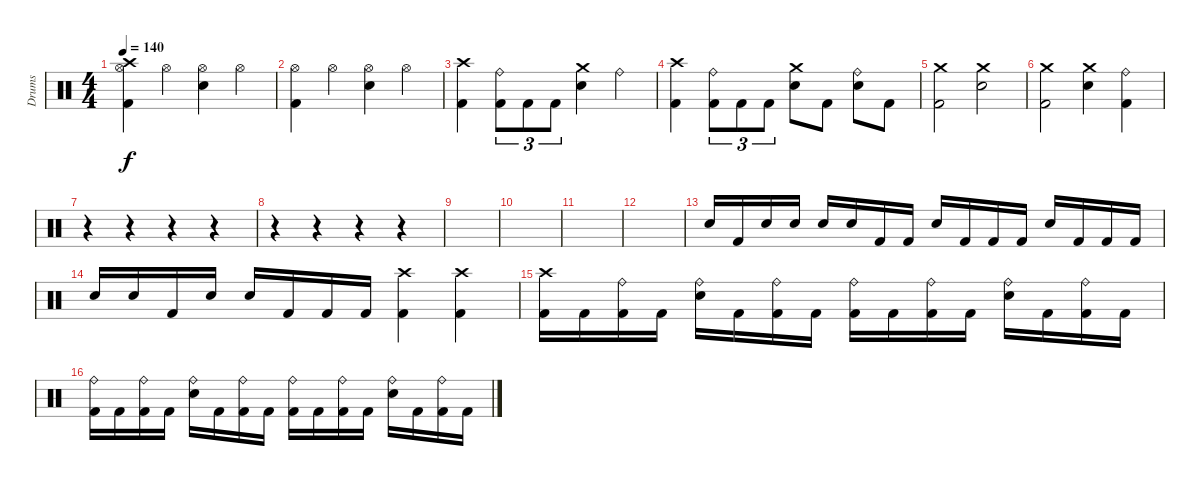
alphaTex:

\track ("Drums" "Drums") {instrument percussion}
\staff {score}
\articulation defaults
\ts (4 4)
\tempo 140
\clef neutral
\ks c
("Crash high (hit)" "Hi-Hat (open)" "Kick (hit) 2").4{dy f} "Hi-Hat (open)".4 ("Hi-Hat (open)" "Snare (hit) 2").4 "Hi-Hat (open)".4 |
("Hi-Hat (open)" "Kick (hit) 2").4 "Hi-Hat (open)".4 ("Hi-Hat (open)" "Snare (hit) 2").4 "Hi-Hat (open)".4 |
("Crash high (hit)" "Kick (hit) 2").4 ("Ride (bell)" "Kick (hit) 2").8{tu (3 2)} "Kick (hit) 2".8{tu (3 2)} "Kick (hit) 2".8{tu (3 2)} ("Crash medium (hit)" "Snare (hit) 2").4 "Ride (bell)".4 |
("Crash high (hit)" "Kick (hit) 2").4 ("Ride (bell)" "Kick (hit) 2").8{tu (3 2)} "Kick (hit) 2".8{tu (3 2)} "Kick (hit) 2".8{tu (3 2)} ("Crash medium (hit)" "Snare (hit) 2").8 "Kick (hit) 2".8 ("Ride (bell)" "Snare (hit) 2").8 "Kick (hit) 2".8 |
("Crash medium (hit)" "Kick (hit) 2").2 ("Crash medium (hit)" "Snare (hit) 2").2 |
("Crash medium (hit)" "Kick (hit) 2").2 ("Crash medium (hit)" "Snare (hit) 2").4 ("Ride (bell)" "Kick (hit) 2").4 |
r.4 r.4 r.4 r.4 |
r.4 r.4 r.4 r.4 |
|
|
|
|
"Snare (hit) 2".16 "Kick (hit) 2".16 "Snare (hit) 2".16 "Snare (hit) 2".16 "Snare (hit) 2".16 "Snare (hit) 2".16 "Kick (hit) 2".16 "Kick (hit) 2".16 "Snare (hit) 2".16 "Kick (hit) 2".16 "Kick (hit) 2".16 "Kick (hit) 2".16 "Snare (hit) 2".16 "Kick (hit) 2".16 "Kick (hit) 2".16 "Kick (hit) 2".16 |
"Snare (hit) 2".16 "Snare (hit) 2".16 "Kick (hit) 2".16 "Snare (hit) 2".16 "Snare (hit) 2".16 "Kick (hit) 2".16 "Kick (hit) 2".16 "Kick (hit) 2".16 ("Crash high (hit)" "Kick (hit) 2").4 ("Crash high (hit)" "Kick (hit) 2").4 |
("Crash high (hit)" "Kick (hit) 2").16 "Kick (hit) 2".16 ("Ride (bell)" "Kick (hit) 2").16 "Kick (hit) 2".16 ("Ride (bell)" "Snare (hit) 2").16 "Kick (hit) 2".16 ("Ride (bell)" "Kick (hit) 2").16 "Kick (hit) 2".16 ("Ride (bell)" "Kick (hit) 2").16 "Kick (hit) 2".16 ("Ride (bell)" "Kick (hit) 2").16 "Kick (hit) 2".16 ("Ride (bell)" "Snare (hit) 2").16 "Kick (hit) 2".16 ("Ride (bell)" "Kick (hit) 2").16 "Kick (hit) 2".16 |
("Ride (bell)" "Kick (hit) 2").16 "Kick (hit) 2".16 ("Ride (bell)" "Kick (hit) 2").16 "Kick (hit) 2".16 ("Ride (bell)" "Snare (hit) 2").16 "Kick (hit) 2".16 ("Ride (bell)" "Kick (hit) 2").16 "Kick (hit) 2".16 ("Ride (bell)" "Kick (hit) 2").16 "Kick (hit) 2".16 ("Ride (bell)" "Kick (hit) 2").16 "Kick (hit) 2".16 ("Ride (bell)" "Snare (hit) 2").16 "Kick (hit) 2".16 ("Ride (bell)" "Kick (hit) 2").16 "Kick (hit) 2".16
